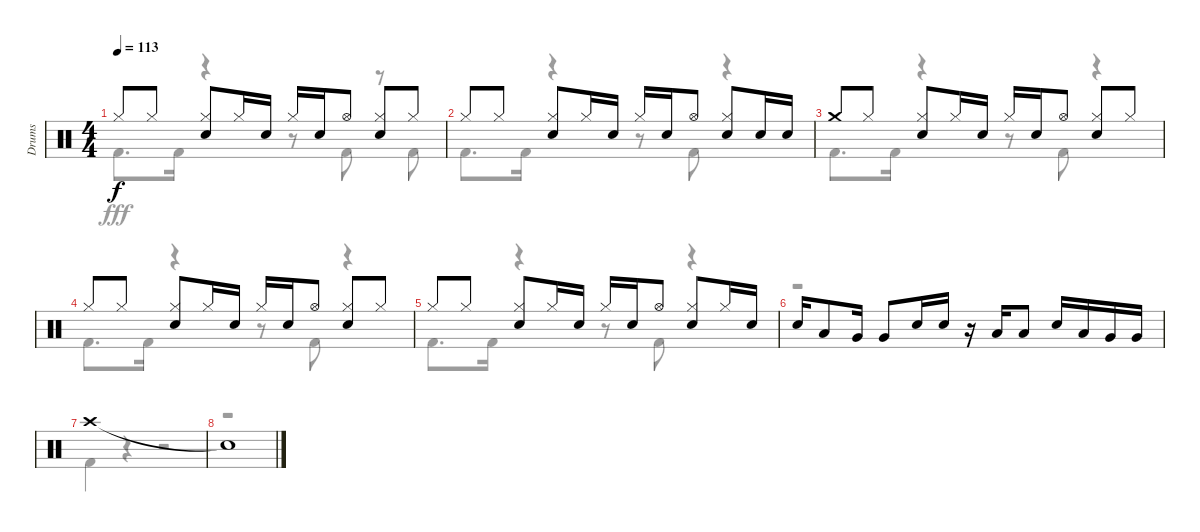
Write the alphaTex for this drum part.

\track ("Drums" "Drums") {instrument percussion}
\staff {score}
\articulation defaults
\voice
\ts (4 4)
\tempo 113
\clef neutral
\ks c "Hi-Hat (closed)".8{dy f} "Hi-Hat (closed)".8
("Hi-Hat (closed)" "Snare (hit) 2").8 "Hi-Hat (closed)".16 "Snare (hit) 2".16 "Hi-Hat (closed)".16 "Snare (hit) 2".16 "Hi-Hat (open)".8 ("Hi-Hat (closed)" "Snare (hit) 2").8 "Hi-Hat (closed)".8 |
"Hi-Hat (closed)".8 "Hi-Hat (closed)".8 ("Hi-Hat (closed)" "Snare (hit) 2").8 "Hi-Hat (closed)".16 "Snare (hit) 2".16 "Hi-Hat (closed)".16 "Snare (hit) 2".16 "Hi-Hat (open)".8 ("Hi-Hat (closed)" "Snare (hit) 2").8 "Snare (hit) 2".16 "Snare (hit) 2".16 |
"Crash medium (hit)".8 "Hi-Hat (closed)".8 ("Hi-Hat (closed)" "Snare (hit) 2").8 "Hi-Hat (closed)".16 "Snare (hit) 2".16 "Hi-Hat (closed)".16 "Snare (hit) 2".16 "Hi-Hat (open)".8 ("Hi-Hat (closed)" "Snare (hit) 2").8 "Hi-Hat (closed)".8 |
"Hi-Hat (closed)".8 "Hi-Hat (closed)".8 ("Hi-Hat (closed)" "Snare (hit) 2").8 "Hi-Hat (closed)".16 "Snare (hit) 2".16 "Hi-Hat (closed)".16 "Snare (hit) 2".16 "Hi-Hat (open)".8 ("Hi-Hat (closed)" "Snare (hit) 2").8 "Hi-Hat (closed)".8 |
"Hi-Hat (closed)".8 "Hi-Hat (closed)".8 ("Hi-Hat (closed)" "Snare (hit) 2").8 "Hi-Hat (closed)".16 "Snare (hit) 2".16 "Hi-Hat (closed)".16 "Snare (hit) 2".16 "Hi-Hat (open)".8 ("Hi-Hat (closed)" "Snare (hit) 2").8 "Hi-Hat (closed)".16 "Snare (hit) 2".16 |
"Snare (hit) 2".16 "Low Tom (hit)".8 "Very Low Tom (hit)".16 "Very Low Tom (hit)".8 "Snare (hit) 2".16 "Snare (hit) 2".16 r.16 "Low Tom (hit)".16 "Low Tom (hit)".8 "Snare (hit) 2".16 "Low Tom (hit)".16 "Very Low Tom (hit)".16 "Very Low Tom (hit)".16 |
"Crash high (hit)".1 |
"Snare (hit)"{t}.1
\voice
\clef neutral
\ottava regular
\simile none
\ks c "Kick (hit) 2".8{d dy fff} "Kick (hit) 2".16
r.4 r.8 "Kick (hit) 2".8 r.8 "Kick (hit) 2".8 |
"Kick (hit) 2".8{d} "Kick (hit) 2".16 r.4 r.8 "Kick (hit) 2".8 r.4 |
"Kick (hit) 2".8{d} "Kick (hit) 2".16 r.4 r.8 "Kick (hit) 2".8 r.4 |
"Kick (hit) 2".8{d} "Kick (hit) 2".16 r.4 r.8 "Kick (hit) 2".8 r.4 |
"Kick (hit) 2".8{d} "Kick (hit) 2".16 r.4 r.8 "Kick (hit) 2".8 r.4 |
r.1 |
"Kick (hit) 2".4 r.4 r.2 |
r.1
